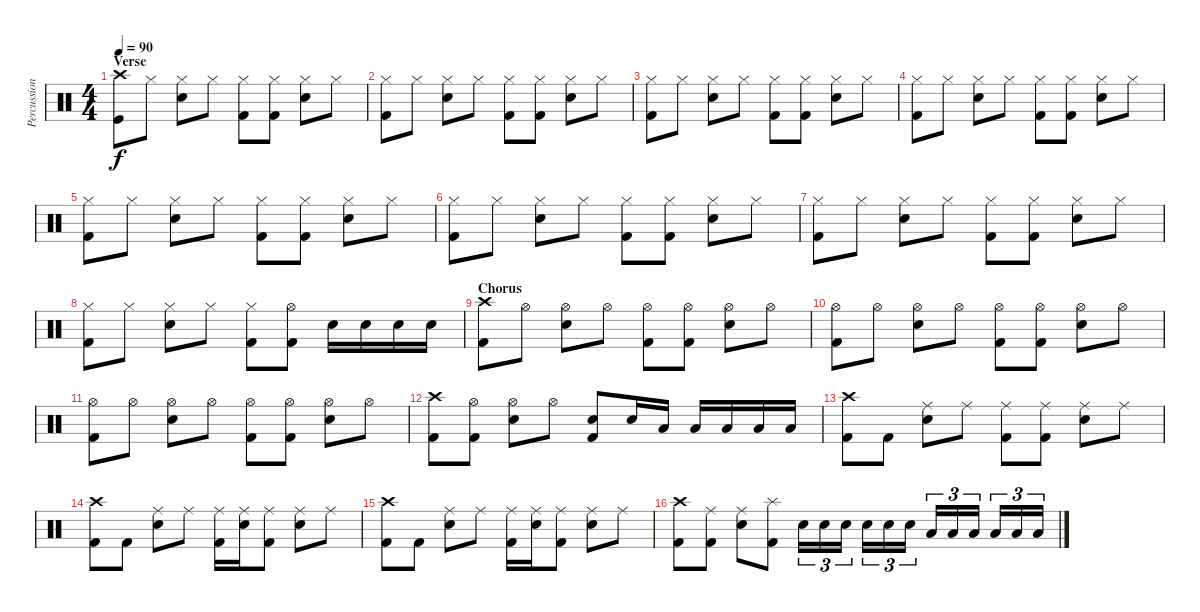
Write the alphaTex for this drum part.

\track ("Percussion" "Percussion") {instrument percussion}
\staff {score}
\articulation defaults
\ts (4 4)
\section ("" "Verse")
\tempo 90
\clef neutral
\ks c
("Crash high (hit)" "Kick (hit)").8{dy f} "Hi-Hat (closed)".8 ("Hi-Hat (closed)" "Electric Snare (hit)").8 "Hi-Hat (closed)".8 ("Hi-Hat (closed)" "Kick (hit) 2").8 ("Hi-Hat (closed)" "Kick (hit) 2").8 ("Hi-Hat (closed)" "Electric Snare (hit)").8 "Hi-Hat (closed)".8 |
("Hi-Hat (closed)" "Kick (hit) 2").8 "Hi-Hat (closed)".8 ("Hi-Hat (closed)" "Electric Snare (hit)").8 "Hi-Hat (closed)".8 ("Hi-Hat (closed)" "Kick (hit) 2").8 ("Hi-Hat (closed)" "Kick (hit) 2").8 ("Hi-Hat (closed)" "Electric Snare (hit)").8 "Hi-Hat (closed)".8 |
("Hi-Hat (closed)" "Kick (hit) 2").8 "Hi-Hat (closed)".8 ("Hi-Hat (closed)" "Electric Snare (hit)").8 "Hi-Hat (closed)".8 ("Hi-Hat (closed)" "Kick (hit) 2").8 ("Hi-Hat (closed)" "Kick (hit) 2").8 ("Hi-Hat (closed)" "Electric Snare (hit)").8 "Hi-Hat (closed)".8 |
("Hi-Hat (closed)" "Kick (hit) 2").8 "Hi-Hat (closed)".8 ("Hi-Hat (closed)" "Electric Snare (hit)").8 "Hi-Hat (closed)".8 ("Hi-Hat (closed)" "Kick (hit) 2").8 ("Hi-Hat (closed)" "Kick (hit) 2").8 ("Hi-Hat (closed)" "Electric Snare (hit)").8 "Hi-Hat (closed)".8 |
("Hi-Hat (closed)" "Kick (hit) 2").8 "Hi-Hat (closed)".8 ("Hi-Hat (closed)" "Electric Snare (hit)").8 "Hi-Hat (closed)".8 ("Hi-Hat (closed)" "Kick (hit) 2").8 ("Hi-Hat (closed)" "Kick (hit) 2").8 ("Hi-Hat (closed)" "Electric Snare (hit)").8 "Hi-Hat (closed)".8 |
("Hi-Hat (closed)" "Kick (hit) 2").8 "Hi-Hat (closed)".8 ("Hi-Hat (closed)" "Electric Snare (hit)").8 "Hi-Hat (closed)".8 ("Hi-Hat (closed)" "Kick (hit) 2").8 ("Hi-Hat (closed)" "Kick (hit) 2").8 ("Hi-Hat (closed)" "Electric Snare (hit)").8 "Hi-Hat (closed)".8 |
("Hi-Hat (closed)" "Kick (hit) 2").8 "Hi-Hat (closed)".8 ("Hi-Hat (closed)" "Electric Snare (hit)").8 "Hi-Hat (closed)".8 ("Hi-Hat (closed)" "Kick (hit) 2").8 ("Hi-Hat (closed)" "Kick (hit) 2").8 ("Hi-Hat (closed)" "Electric Snare (hit)").8 "Hi-Hat (closed)".8 |
("Hi-Hat (closed)" "Kick (hit) 2").8 "Hi-Hat (closed)".8 ("Hi-Hat (closed)" "Electric Snare (hit)").8 "Hi-Hat (closed)".8 ("Hi-Hat (closed)" "Kick (hit) 2").8 ("Hi-Hat (open)" "Kick (hit) 2").8 "Electric Snare (hit)".16 "Electric Snare (hit)".16 "Electric Snare (hit)".16 "Electric Snare (hit)".16 |
\section ("" "Chorus")
("Crash high (hit)" "Kick (hit) 2").8 "Hi-Hat (open)".8 ("Hi-Hat (open)" "Electric Snare (hit)").8 "Hi-Hat (open)".8 ("Hi-Hat (open)" "Kick (hit) 2").8 ("Hi-Hat (open)" "Kick (hit) 2").8 ("Hi-Hat (open)" "Electric Snare (hit)").8 "Hi-Hat (open)".8 |
("Hi-Hat (open)" "Kick (hit) 2").8 "Hi-Hat (open)".8 ("Hi-Hat (open)" "Electric Snare (hit)").8 "Hi-Hat (open)".8 ("Hi-Hat (open)" "Kick (hit) 2").8 ("Hi-Hat (open)" "Kick (hit) 2").8 ("Hi-Hat (open)" "Electric Snare (hit)").8 "Hi-Hat (open)".8 |
("Hi-Hat (open)" "Kick (hit) 2").8 "Hi-Hat (open)".8 ("Hi-Hat (open)" "Electric Snare (hit)").8 "Hi-Hat (open)".8 ("Hi-Hat (open)" "Kick (hit) 2").8 ("Hi-Hat (open)" "Kick (hit) 2").8 ("Hi-Hat (open)" "Electric Snare (hit)").8 "Hi-Hat (open)".8 |
("Crash high (hit)" "Kick (hit) 2").8 ("Hi-Hat (open)" "Kick (hit) 2").8 ("Hi-Hat (open)" "Electric Snare (hit)").8 "Hi-Hat (open)".8 ("Electric Snare (hit)" "Kick (hit) 2").8 "Electric Snare (hit)".16 "Low Floor Tom (hit)".16 "Low Floor Tom (hit)".16 "Low Floor Tom (hit)".16 "Low Tom (hit)".16 "Low Tom (hit)".16 |
("Crash high (hit)" "Kick (hit) 2").8 "Kick (hit) 2".8 ("Ride (middle)" "Electric Snare (hit)").8 "Ride (middle)".8 ("Ride (middle)" "Kick (hit) 2").8 ("Ride (middle)" "Kick (hit) 2").8 ("Ride (middle)" "Electric Snare (hit)").8 "Ride (middle)".8 |
("Crash high (hit)" "Kick (hit) 2").8 "Kick (hit) 2".8 ("Ride (middle)" "Electric Snare (hit)").8 "Ride (middle)".8 ("Ride (middle)" "Kick (hit) 2").16 ("Ride (middle)" "Electric Snare (hit)").16 ("Ride (middle)" "Kick (hit) 2").8 ("Ride (middle)" "Electric Snare (hit)").8 "Ride (middle)".8 |
("Crash high (hit)" "Kick (hit) 2").8 "Kick (hit) 2".8 ("Ride (middle)" "Electric Snare (hit)").8 "Ride (middle)".8 ("Ride (middle)" "Kick (hit) 2").16 ("Ride (middle)" "Electric Snare (hit)").16 ("Ride (middle)" "Kick (hit) 2").8 ("Ride (middle)" "Electric Snare (hit)").8 "Ride (middle)".8 |
("Crash high (hit)" "Kick (hit) 2").8 ("Ride (middle)" "Kick (hit) 2").8 ("Ride (middle)" "Electric Snare (hit)").8 ("Splash (hit)" "Kick (hit) 2").8 "Electric Snare (hit)".16{tu (3 2)} "Electric Snare (hit)".16{tu (3 2)} "Electric Snare (hit)".16{tu (3 2)} "Electric Snare (hit)".16{tu (3 2)} "Electric Snare (hit)".16{tu (3 2)} "Electric Snare (hit)".16{tu (3 2)} "Low Floor Tom (hit)".16{tu (3 2)} "Low Floor Tom (hit)".16{tu (3 2)} "Low Tom (hit)".16{tu (3 2)} "Low Tom (hit)".16{tu (3 2)} "Low Tom (hit)".16{tu (3 2)} "Low Tom (hit)".16{tu (3 2)}
